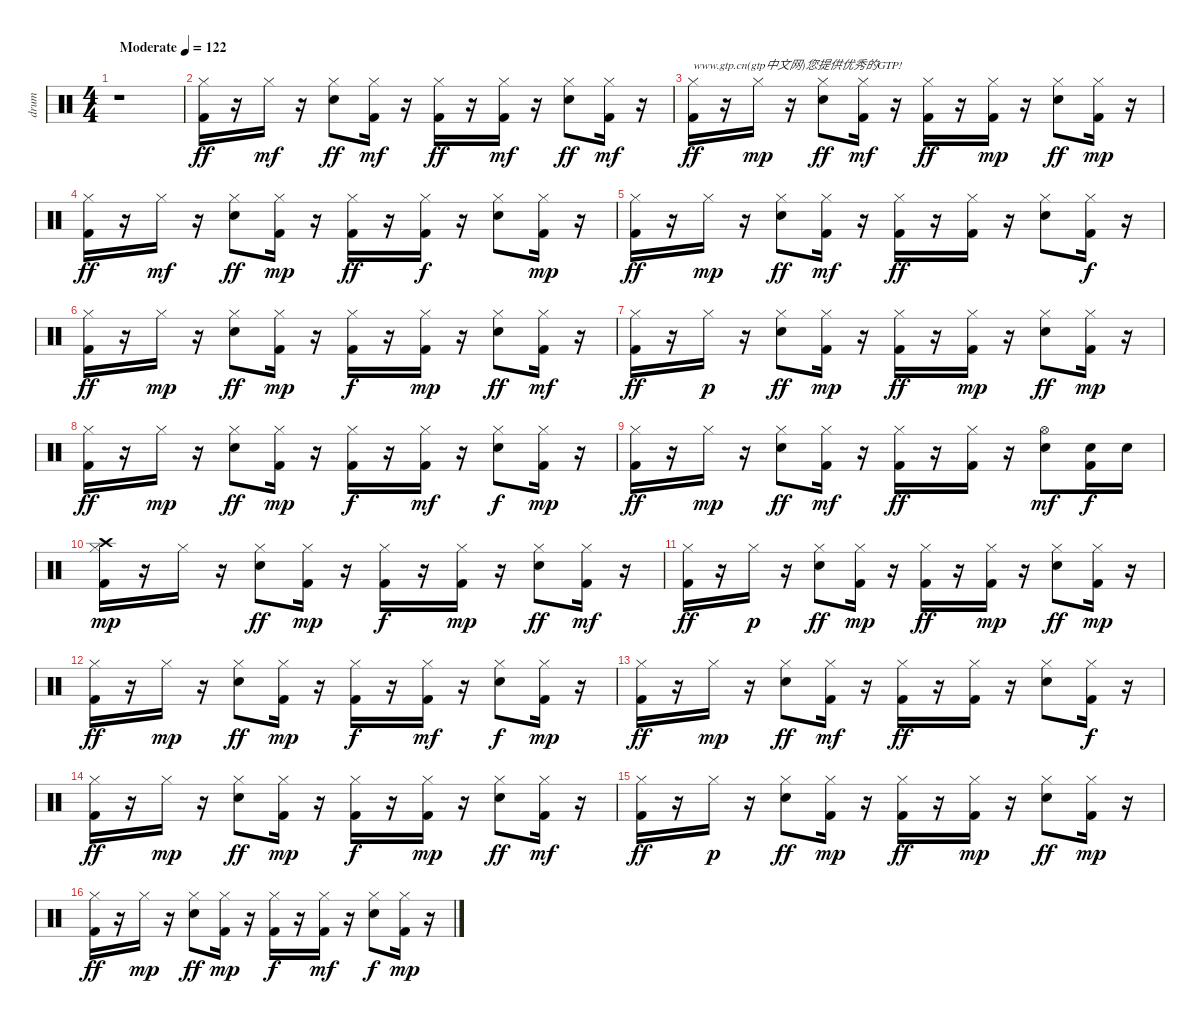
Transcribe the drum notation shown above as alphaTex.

\track ("drum" "drum") {instrument percussion}
\staff {score}
\articulation defaults
\ts (4 4)
\tempo (122 "Moderate")
\clef neutral
\ks c
r.1{dy ff} |
("Kick (hit) 2" "Hi-Hat (closed)").16 r.16 "Hi-Hat (closed)".16{dy mf} r.16 ("Electric Snare (hit)" "Hi-Hat (closed)").8{dy ff} ("Kick (hit) 2" "Hi-Hat (closed)").16{dy mf} r.16 ("Kick (hit) 2" "Hi-Hat (closed)").16{dy ff} r.16 ("Kick (hit) 2" "Hi-Hat (closed)").16{dy mf} r.16 ("Electric Snare (hit)" "Hi-Hat (closed)").8{dy ff} ("Kick (hit) 2" "Hi-Hat (closed)").16{dy mf} r.16 |
("Kick (hit) 2" "Hi-Hat (closed)").16{txt "www.gtp.cn(gtp中文网)您提供优秀的GTP!" dy ff} r.16 "Hi-Hat (closed)".16{dy mp} r.16 ("Electric Snare (hit)" "Hi-Hat (closed)").8{dy ff} ("Kick (hit) 2" "Hi-Hat (closed)").16{dy mf} r.16 ("Kick (hit) 2" "Hi-Hat (closed)").16{dy ff} r.16 ("Kick (hit) 2" "Hi-Hat (closed)").16{dy mp} r.16 ("Electric Snare (hit)" "Hi-Hat (closed)").8{dy ff} ("Kick (hit) 2" "Hi-Hat (closed)").16{dy mp} r.16 |
("Kick (hit) 2" "Hi-Hat (closed)").16{dy ff} r.16 "Hi-Hat (closed)".16{dy mf} r.16 ("Electric Snare (hit)" "Hi-Hat (closed)").8{dy ff} ("Kick (hit) 2" "Hi-Hat (closed)").16{dy mp} r.16 ("Kick (hit) 2" "Hi-Hat (closed)").16{dy ff} r.16 ("Kick (hit) 2" "Hi-Hat (closed)").16{dy f} r.16 ("Electric Snare (hit)" "Hi-Hat (closed)").8 ("Kick (hit) 2" "Hi-Hat (closed)").16{dy mp} r.16 |
("Kick (hit) 2" "Hi-Hat (closed)").16{dy ff} r.16 "Hi-Hat (closed)".16{dy mp} r.16 ("Electric Snare (hit)" "Hi-Hat (closed)").8{dy ff} ("Kick (hit) 2" "Hi-Hat (closed)").16{dy mf} r.16 ("Kick (hit) 2" "Hi-Hat (closed)").16{dy ff} r.16 ("Kick (hit) 2" "Hi-Hat (closed)").16 r.16 ("Electric Snare (hit)" "Hi-Hat (closed)").8 ("Kick (hit) 2" "Hi-Hat (closed)").16{dy f} r.16 |
("Kick (hit) 2" "Hi-Hat (closed)").16{dy ff} r.16 "Hi-Hat (closed)".16{dy mp} r.16 ("Electric Snare (hit)" "Hi-Hat (closed)").8{dy ff} ("Kick (hit) 2" "Hi-Hat (closed)").16{dy mp} r.16 ("Kick (hit) 2" "Hi-Hat (closed)").16{dy f} r.16 ("Kick (hit) 2" "Hi-Hat (closed)").16{dy mp} r.16 ("Electric Snare (hit)" "Hi-Hat (closed)").8{dy ff} ("Kick (hit) 2" "Hi-Hat (closed)").16{dy mf} r.16 |
("Kick (hit) 2" "Hi-Hat (closed)").16{dy ff} r.16 "Hi-Hat (closed)".16{dy p} r.16 ("Electric Snare (hit)" "Hi-Hat (closed)").8{dy ff} ("Kick (hit) 2" "Hi-Hat (closed)").16{dy mp} r.16 ("Kick (hit) 2" "Hi-Hat (closed)").16{dy ff} r.16 ("Kick (hit) 2" "Hi-Hat (closed)").16{dy mp} r.16 ("Electric Snare (hit)" "Hi-Hat (closed)").8{dy ff} ("Kick (hit) 2" "Hi-Hat (closed)").16{dy mp} r.16 |
("Kick (hit) 2" "Hi-Hat (closed)").16{dy ff} r.16 "Hi-Hat (closed)".16{dy mp} r.16 ("Electric Snare (hit)" "Hi-Hat (closed)").8{dy ff} ("Kick (hit) 2" "Hi-Hat (closed)").16{dy mp} r.16 ("Kick (hit) 2" "Hi-Hat (closed)").16{dy f} r.16 ("Kick (hit) 2" "Hi-Hat (closed)").16{dy mf} r.16 ("Electric Snare (hit)" "Hi-Hat (closed)").8{dy f} ("Kick (hit) 2" "Hi-Hat (closed)").16{dy mp} r.16 |
("Kick (hit) 2" "Hi-Hat (closed)").16{dy ff} r.16 "Hi-Hat (closed)".16{dy mp} r.16 ("Electric Snare (hit)" "Hi-Hat (closed)").8{dy ff} ("Kick (hit) 2" "Hi-Hat (closed)").16{dy mf} r.16 ("Kick (hit) 2" "Hi-Hat (closed)").16{dy ff} r.16 ("Kick (hit) 2" "Hi-Hat (closed)").16 r.16 ("Electric Snare (hit)" "Hi-Hat (open)").8{dy mf} ("Kick (hit) 2" "Electric Snare (hit)").16{dy f} "Electric Snare (hit)".16 |
("Kick (hit) 2" "Hi-Hat (closed)" "Crash high (hit)").16{dy mp} r.16 "Hi-Hat (closed)".16 r.16 ("Electric Snare (hit)" "Hi-Hat (closed)").8{dy ff} ("Kick (hit) 2" "Hi-Hat (closed)").16{dy mp} r.16 ("Kick (hit) 2" "Hi-Hat (closed)").16{dy f} r.16 ("Kick (hit) 2" "Hi-Hat (closed)").16{dy mp} r.16 ("Electric Snare (hit)" "Hi-Hat (closed)").8{dy ff} ("Kick (hit) 2" "Hi-Hat (closed)").16{dy mf} r.16 |
("Kick (hit) 2" "Hi-Hat (closed)").16{dy ff} r.16 "Hi-Hat (closed)".16{dy p} r.16 ("Electric Snare (hit)" "Hi-Hat (closed)").8{dy ff} ("Kick (hit) 2" "Hi-Hat (closed)").16{dy mp} r.16 ("Kick (hit) 2" "Hi-Hat (closed)").16{dy ff} r.16 ("Kick (hit) 2" "Hi-Hat (closed)").16{dy mp} r.16 ("Electric Snare (hit)" "Hi-Hat (closed)").8{dy ff} ("Kick (hit) 2" "Hi-Hat (closed)").16{dy mp} r.16 |
("Kick (hit) 2" "Hi-Hat (closed)").16{dy ff} r.16 "Hi-Hat (closed)".16{dy mp} r.16 ("Electric Snare (hit)" "Hi-Hat (closed)").8{dy ff} ("Kick (hit) 2" "Hi-Hat (closed)").16{dy mp} r.16 ("Kick (hit) 2" "Hi-Hat (closed)").16{dy f} r.16 ("Kick (hit) 2" "Hi-Hat (closed)").16{dy mf} r.16 ("Electric Snare (hit)" "Hi-Hat (closed)").8{dy f} ("Kick (hit) 2" "Hi-Hat (closed)").16{dy mp} r.16 |
("Kick (hit) 2" "Hi-Hat (closed)").16{dy ff} r.16 "Hi-Hat (closed)".16{dy mp} r.16 ("Electric Snare (hit)" "Hi-Hat (closed)").8{dy ff} ("Kick (hit) 2" "Hi-Hat (closed)").16{dy mf} r.16 ("Kick (hit) 2" "Hi-Hat (closed)").16{dy ff} r.16 ("Kick (hit) 2" "Hi-Hat (closed)").16 r.16 ("Electric Snare (hit)" "Hi-Hat (closed)").8 ("Kick (hit) 2" "Hi-Hat (closed)").16{dy f} r.16 |
("Kick (hit) 2" "Hi-Hat (closed)").16{dy ff} r.16 "Hi-Hat (closed)".16{dy mp} r.16 ("Electric Snare (hit)" "Hi-Hat (closed)").8{dy ff} ("Kick (hit) 2" "Hi-Hat (closed)").16{dy mp} r.16 ("Kick (hit) 2" "Hi-Hat (closed)").16{dy f} r.16 ("Kick (hit) 2" "Hi-Hat (closed)").16{dy mp} r.16 ("Electric Snare (hit)" "Hi-Hat (closed)").8{dy ff} ("Kick (hit) 2" "Hi-Hat (closed)").16{dy mf} r.16 |
("Kick (hit) 2" "Hi-Hat (closed)").16{dy ff} r.16 "Hi-Hat (closed)".16{dy p} r.16 ("Electric Snare (hit)" "Hi-Hat (closed)").8{dy ff} ("Kick (hit) 2" "Hi-Hat (closed)").16{dy mp} r.16 ("Kick (hit) 2" "Hi-Hat (closed)").16{dy ff} r.16 ("Kick (hit) 2" "Hi-Hat (closed)").16{dy mp} r.16 ("Electric Snare (hit)" "Hi-Hat (closed)").8{dy ff} ("Kick (hit) 2" "Hi-Hat (closed)").16{dy mp} r.16 |
("Kick (hit) 2" "Hi-Hat (closed)").16{dy ff} r.16 "Hi-Hat (closed)".16{dy mp} r.16 ("Electric Snare (hit)" "Hi-Hat (closed)").8{dy ff} ("Kick (hit) 2" "Hi-Hat (closed)").16{dy mp} r.16 ("Kick (hit) 2" "Hi-Hat (closed)").16{dy f} r.16 ("Kick (hit) 2" "Hi-Hat (closed)").16{dy mf} r.16 ("Electric Snare (hit)" "Hi-Hat (closed)").8{dy f} ("Kick (hit) 2" "Hi-Hat (closed)").16{dy mp} r.16
